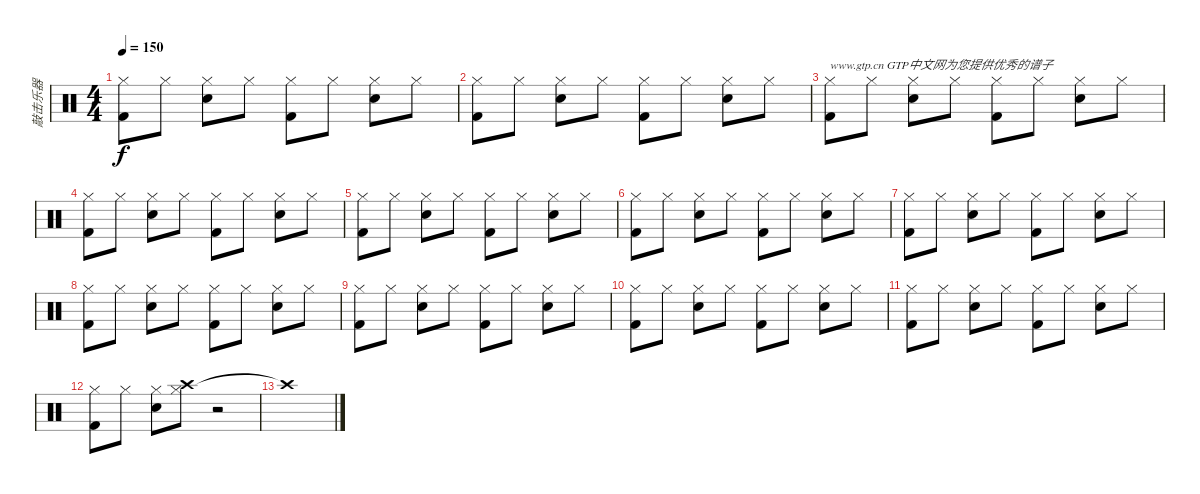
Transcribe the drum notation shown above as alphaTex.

\track ("敲击乐器" "敲击乐器") {instrument percussion}
\staff {score}
\articulation defaults
\ts (4 4)
\tempo 150
\clef neutral
\ks c
("Kick (hit) 2" "Hi-Hat (closed)").8{dy f} "Hi-Hat (closed)".8 ("Electric Snare (hit)" "Hi-Hat (closed)").8 "Hi-Hat (closed)".8 ("Kick (hit) 2" "Hi-Hat (closed)").8 "Hi-Hat (closed)".8 ("Electric Snare (hit)" "Hi-Hat (closed)").8 "Hi-Hat (closed)".8 |
("Kick (hit) 2" "Hi-Hat (closed)").8 "Hi-Hat (closed)".8 ("Electric Snare (hit)" "Hi-Hat (closed)").8 "Hi-Hat (closed)".8 ("Kick (hit) 2" "Hi-Hat (closed)").8 "Hi-Hat (closed)".8 ("Electric Snare (hit)" "Hi-Hat (closed)").8 "Hi-Hat (closed)".8 |
("Kick (hit) 2" "Hi-Hat (closed)").8{txt "www.gtp.cn GTP中文网为您提供优秀的谱子"} "Hi-Hat (closed)".8 ("Electric Snare (hit)" "Hi-Hat (closed)").8 "Hi-Hat (closed)".8 ("Kick (hit) 2" "Hi-Hat (closed)").8 "Hi-Hat (closed)".8 ("Electric Snare (hit)" "Hi-Hat (closed)").8 "Hi-Hat (closed)".8 |
("Kick (hit) 2" "Hi-Hat (closed)").8 "Hi-Hat (closed)".8 ("Electric Snare (hit)" "Hi-Hat (closed)").8 "Hi-Hat (closed)".8 ("Kick (hit) 2" "Hi-Hat (closed)").8 "Hi-Hat (closed)".8 ("Electric Snare (hit)" "Hi-Hat (closed)").8 "Hi-Hat (closed)".8 |
("Kick (hit) 2" "Hi-Hat (closed)").8 "Hi-Hat (closed)".8 ("Electric Snare (hit)" "Hi-Hat (closed)").8 "Hi-Hat (closed)".8 ("Kick (hit) 2" "Hi-Hat (closed)").8 "Hi-Hat (closed)".8 ("Electric Snare (hit)" "Hi-Hat (closed)").8 "Hi-Hat (closed)".8 |
("Kick (hit) 2" "Hi-Hat (closed)").8 "Hi-Hat (closed)".8 ("Electric Snare (hit)" "Hi-Hat (closed)").8 "Hi-Hat (closed)".8 ("Kick (hit) 2" "Hi-Hat (closed)").8 "Hi-Hat (closed)".8 ("Electric Snare (hit)" "Hi-Hat (closed)").8 "Hi-Hat (closed)".8 |
("Kick (hit) 2" "Hi-Hat (closed)").8 "Hi-Hat (closed)".8 ("Electric Snare (hit)" "Hi-Hat (closed)").8 "Hi-Hat (closed)".8 ("Kick (hit) 2" "Hi-Hat (closed)").8 "Hi-Hat (closed)".8 ("Electric Snare (hit)" "Hi-Hat (closed)").8 "Hi-Hat (closed)".8 |
("Kick (hit) 2" "Hi-Hat (closed)").8 "Hi-Hat (closed)".8 ("Electric Snare (hit)" "Hi-Hat (closed)").8 "Hi-Hat (closed)".8 ("Kick (hit) 2" "Hi-Hat (closed)").8 "Hi-Hat (closed)".8 ("Electric Snare (hit)" "Hi-Hat (closed)").8 "Hi-Hat (closed)".8 |
("Kick (hit) 2" "Hi-Hat (closed)").8 "Hi-Hat (closed)".8 ("Electric Snare (hit)" "Hi-Hat (closed)").8 "Hi-Hat (closed)".8 ("Kick (hit) 2" "Hi-Hat (closed)").8 "Hi-Hat (closed)".8 ("Electric Snare (hit)" "Hi-Hat (closed)").8 "Hi-Hat (closed)".8 |
("Kick (hit) 2" "Hi-Hat (closed)").8 "Hi-Hat (closed)".8 ("Electric Snare (hit)" "Hi-Hat (closed)").8 "Hi-Hat (closed)".8 ("Kick (hit) 2" "Hi-Hat (closed)").8 "Hi-Hat (closed)".8 ("Electric Snare (hit)" "Hi-Hat (closed)").8 "Hi-Hat (closed)".8 |
("Kick (hit) 2" "Hi-Hat (closed)").8 "Hi-Hat (closed)".8 ("Electric Snare (hit)" "Hi-Hat (closed)").8 "Hi-Hat (closed)".8 ("Kick (hit) 2" "Hi-Hat (closed)").8 "Hi-Hat (closed)".8 ("Electric Snare (hit)" "Hi-Hat (closed)").8 "Hi-Hat (closed)".8 |
("Kick (hit) 2" "Hi-Hat (closed)").8 "Hi-Hat (closed)".8 ("Electric Snare (hit)" "Hi-Hat (closed)").8 ("Hi-Hat (closed)" "Crash high (hit)").8 r.2 |
"Crash high (hit)"{t}.1
